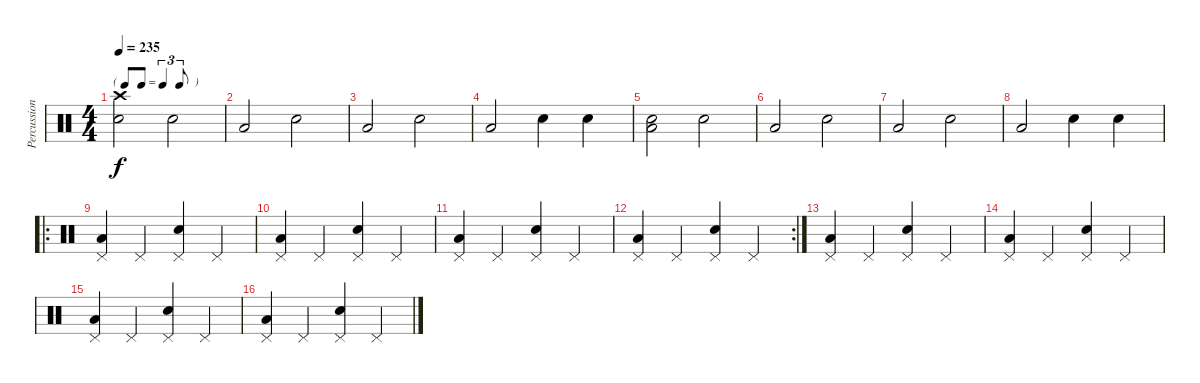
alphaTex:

\track ("Percussions" "Percussion") {instrument percussion}
\staff {score}
\articulation defaults
\ts (4 4)
\tf triplet8th
\tempo 235
\clef neutral
\ks c
("Crash high (hit)" "Snare (hit)").2{dy f} "Snare (hit) 2".2 |
"Low Tom (hit)".2 "Snare (hit) 2".2 |
"Low Tom (hit)".2 "Snare (hit) 2".2 |
"Low Tom (hit)".2 "Snare (hit) 2".4 "Snare (hit) 2".4 |
("Snare (hit)" "Low Tom (hit)").2 "Snare (hit) 2".2 |
"Low Tom (hit)".2 "Snare (hit) 2".2 |
"Low Tom (hit)".2 "Snare (hit) 2".2 |
"Low Tom (hit)".2 "Snare (hit) 2".4 "Snare (hit) 2".4 |
\ro
("Pedal Hi-Hat (hit)" "Low Tom (hit)").4 "Pedal Hi-Hat (hit)".4 ("Pedal Hi-Hat (hit)" "Snare (hit) 2").4 "Pedal Hi-Hat (hit)".4 |
("Pedal Hi-Hat (hit)" "Low Tom (hit)").4 "Pedal Hi-Hat (hit)".4 ("Pedal Hi-Hat (hit)" "Snare (hit) 2").4 "Pedal Hi-Hat (hit)".4 |
("Pedal Hi-Hat (hit)" "Low Tom (hit)").4 "Pedal Hi-Hat (hit)".4 ("Pedal Hi-Hat (hit)" "Snare (hit) 2").4 "Pedal Hi-Hat (hit)".4 |
\rc 2
("Pedal Hi-Hat (hit)" "Low Tom (hit)").4 "Pedal Hi-Hat (hit)".4 ("Pedal Hi-Hat (hit)" "Snare (hit) 2").4 "Pedal Hi-Hat (hit)".4 |
("Pedal Hi-Hat (hit)" "Low Tom (hit)").4 "Pedal Hi-Hat (hit)".4 ("Pedal Hi-Hat (hit)" "Snare (hit) 2").4 "Pedal Hi-Hat (hit)".4 |
("Pedal Hi-Hat (hit)" "Low Tom (hit)").4 "Pedal Hi-Hat (hit)".4 ("Pedal Hi-Hat (hit)" "Snare (hit) 2").4 "Pedal Hi-Hat (hit)".4 |
("Pedal Hi-Hat (hit)" "Low Tom (hit)").4 "Pedal Hi-Hat (hit)".4 ("Pedal Hi-Hat (hit)" "Snare (hit) 2").4 "Pedal Hi-Hat (hit)".4 |
("Pedal Hi-Hat (hit)" "Low Tom (hit)").4 "Pedal Hi-Hat (hit)".4 ("Pedal Hi-Hat (hit)" "Snare (hit) 2").4 "Pedal Hi-Hat (hit)".4
